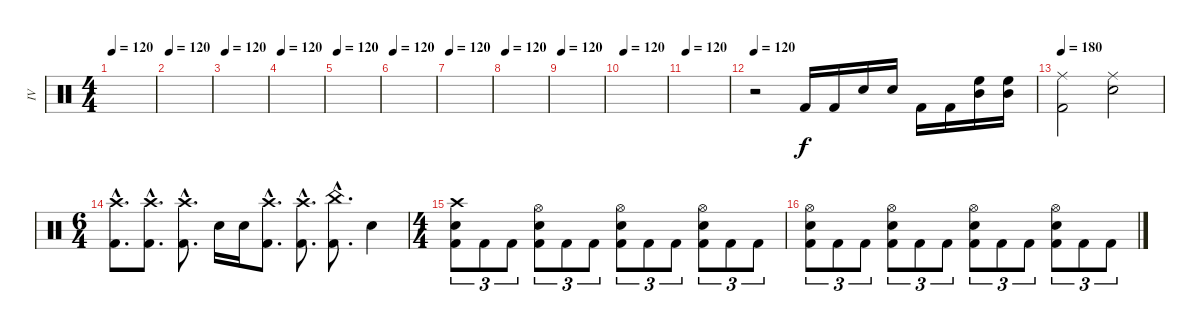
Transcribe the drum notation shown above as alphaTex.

\track ("IV" "IV") {instrument percussion}
\staff {score}
\articulation defaults
\ts (4 4)
\tempo 120
\clef neutral
\ks c
|
\tempo 120
|
\tempo 120
|
\tempo 120
|
\tempo 120
|
\tempo 120
|
\tempo 120
|
\tempo 120
|
\tempo 120
|
\tempo 120
|
\tempo 120
|
\tempo 120
r.2 "Kick (hit) 2".16 "Kick (hit) 2".16 "Snare (hit) 2".16 "Snare (hit) 2".16 "Kick (hit) 2".16 "Kick (hit) 2".16 ("High Floor Tom (hit)" "Mid Tom (hit)").16 ("High Floor Tom (hit)" "Mid Tom (hit)").16 |
\tempo 180
("Ride (middle)" "Kick (hit) 2").2 ("Ride (middle)" "Snare (hit) 2").2 |
\ts (6 4)
("Crash high (hit)"{hac} "Kick (hit) 2"{hac}).8{d} ("Crash high (hit)"{hac} "Kick (hit) 2"{hac}).8{d} ("Crash high (hit)"{hac} "Kick (hit) 2"{hac}).8{d} "Snare (hit) 2".16 "Snare (hit) 2".16 ("Crash high (hit)"{hac} "Kick (hit) 2"{hac}).8{d} ("Crash high (hit)"{hac} "Kick (hit) 2"{hac}).8{d} ("China (hit)"{hac} "Kick (hit) 2"{hac}).8{d} "Snare (hit) 2".4 |
\ts (4 4)
("Crash high (hit)" "Snare (hit) 2" "Kick (hit) 2").8{tu (3 2)} "Kick (hit) 2".8{tu (3 2)} "Kick (hit) 2".8{tu (3 2)} ("Hi-Hat (open)" "Snare (hit) 2" "Kick (hit) 2").8{tu (3 2)} "Kick (hit) 2".8{tu (3 2)} "Kick (hit) 2".8{tu (3 2)} ("Hi-Hat (open)" "Snare (hit) 2" "Kick (hit) 2").8{tu (3 2)} "Kick (hit) 2".8{tu (3 2)} "Kick (hit) 2".8{tu (3 2)} ("Hi-Hat (open)" "Snare (hit) 2" "Kick (hit) 2").8{tu (3 2)} "Kick (hit) 2".8{tu (3 2)} "Kick (hit) 2".8{tu (3 2)} |
("Hi-Hat (open)" "Snare (hit) 2" "Kick (hit) 2").8{tu (3 2)} "Kick (hit) 2".8{tu (3 2)} "Kick (hit) 2".8{tu (3 2)} ("Hi-Hat (open)" "Snare (hit) 2" "Kick (hit) 2").8{tu (3 2)} "Kick (hit) 2".8{tu (3 2)} "Kick (hit) 2".8{tu (3 2)} ("Hi-Hat (open)" "Snare (hit) 2" "Kick (hit) 2").8{tu (3 2)} "Kick (hit) 2".8{tu (3 2)} "Kick (hit) 2".8{tu (3 2)} ("Hi-Hat (open)" "Snare (hit) 2" "Kick (hit) 2").8{tu (3 2)} "Kick (hit) 2".8{tu (3 2)} "Kick (hit) 2".8{tu (3 2)}
